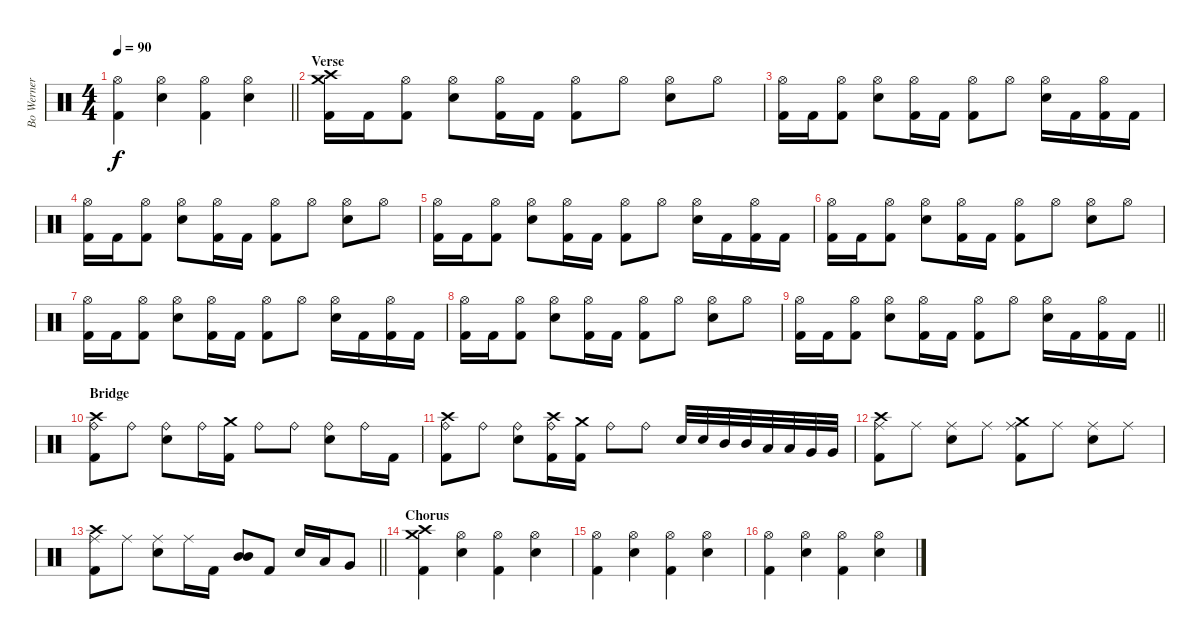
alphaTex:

\track ("Bo Werner" "Bo Werner") {instrument percussion}
\staff {score}
\articulation defaults
\ts (4 4)
\tempo 90
\clef neutral
\barLineRight lightlight
\ks c
("Hi-Hat (open)" "Kick (hit) 2").4{dy f} ("Hi-Hat (open)" "Snare (hit) 2").4 ("Hi-Hat (open)" "Kick (hit) 2").4 ("Hi-Hat (open)" "Snare (hit) 2").4 |
\section ("" "Verse")
("Crash medium (hit)" "Crash high (hit)" "Kick (hit) 2").16 "Kick (hit) 2".16 ("Hi-Hat (open)" "Kick (hit) 2").8 ("Hi-Hat (open)" "Snare (hit) 2").8 ("Hi-Hat (open)" "Kick (hit) 2").16 "Kick (hit) 2".16 ("Hi-Hat (open)" "Kick (hit) 2").8 "Hi-Hat (open)".8 ("Hi-Hat (open)" "Snare (hit) 2").8 "Hi-Hat (open)".8 |
("Hi-Hat (open)" "Kick (hit) 2").16 "Kick (hit) 2".16 ("Hi-Hat (open)" "Kick (hit) 2").8 ("Hi-Hat (open)" "Snare (hit) 2").8 ("Hi-Hat (open)" "Kick (hit) 2").16 "Kick (hit) 2".16 ("Hi-Hat (open)" "Kick (hit) 2").8 "Hi-Hat (open)".8 ("Hi-Hat (open)" "Snare (hit) 2").16 "Kick (hit) 2".16 ("Hi-Hat (open)" "Kick (hit) 2").16 "Kick (hit) 2".16 |
("Hi-Hat (open)" "Kick (hit) 2").16 "Kick (hit) 2".16 ("Hi-Hat (open)" "Kick (hit) 2").8 ("Hi-Hat (open)" "Snare (hit) 2").8 ("Hi-Hat (open)" "Kick (hit) 2").16 "Kick (hit) 2".16 ("Hi-Hat (open)" "Kick (hit) 2").8 "Hi-Hat (open)".8 ("Hi-Hat (open)" "Snare (hit) 2").8 "Hi-Hat (open)".8 |
("Hi-Hat (open)" "Kick (hit) 2").16 "Kick (hit) 2".16 ("Hi-Hat (open)" "Kick (hit) 2").8 ("Hi-Hat (open)" "Snare (hit) 2").8 ("Hi-Hat (open)" "Kick (hit) 2").16 "Kick (hit) 2".16 ("Hi-Hat (open)" "Kick (hit) 2").8 "Hi-Hat (open)".8 ("Hi-Hat (open)" "Snare (hit) 2").16 "Kick (hit) 2".16 ("Hi-Hat (open)" "Kick (hit) 2").16 "Kick (hit) 2".16 |
("Hi-Hat (open)" "Kick (hit) 2").16 "Kick (hit) 2".16 ("Hi-Hat (open)" "Kick (hit) 2").8 ("Hi-Hat (open)" "Snare (hit) 2").8 ("Hi-Hat (open)" "Kick (hit) 2").16 "Kick (hit) 2".16 ("Hi-Hat (open)" "Kick (hit) 2").8 "Hi-Hat (open)".8 ("Hi-Hat (open)" "Snare (hit) 2").8 "Hi-Hat (open)".8 |
("Hi-Hat (open)" "Kick (hit) 2").16 "Kick (hit) 2".16 ("Hi-Hat (open)" "Kick (hit) 2").8 ("Hi-Hat (open)" "Snare (hit) 2").8 ("Hi-Hat (open)" "Kick (hit) 2").16 "Kick (hit) 2".16 ("Hi-Hat (open)" "Kick (hit) 2").8 "Hi-Hat (open)".8 ("Hi-Hat (open)" "Snare (hit) 2").16 "Kick (hit) 2".16 ("Hi-Hat (open)" "Kick (hit) 2").16 "Kick (hit) 2".16 |
("Hi-Hat (open)" "Kick (hit) 2").16 "Kick (hit) 2".16 ("Hi-Hat (open)" "Kick (hit) 2").8 ("Hi-Hat (open)" "Snare (hit) 2").8 ("Hi-Hat (open)" "Kick (hit) 2").16 "Kick (hit) 2".16 ("Hi-Hat (open)" "Kick (hit) 2").8 "Hi-Hat (open)".8 ("Hi-Hat (open)" "Snare (hit) 2").8 "Hi-Hat (open)".8 |
\barLineRight lightlight
("Hi-Hat (open)" "Kick (hit) 2").16 "Kick (hit) 2".16 ("Hi-Hat (open)" "Kick (hit) 2").8 ("Hi-Hat (open)" "Snare (hit) 2").8 ("Hi-Hat (open)" "Kick (hit) 2").16 "Kick (hit) 2".16 ("Hi-Hat (open)" "Kick (hit) 2").8 "Hi-Hat (open)".8 ("Hi-Hat (open)" "Snare (hit) 2").16 "Kick (hit) 2".16 ("Hi-Hat (open)" "Kick (hit) 2").16 "Kick (hit) 2".16 |
\section ("" "Bridge")
("Crash high (hit)" "Ride (bell)" "Kick (hit) 2").8 "Ride (bell)".8 ("Ride (bell)" "Snare (hit) 2").8 "Ride (bell)".16 ("Crash medium (hit)" "Kick (hit) 2").16 "Ride (bell)".8 "Ride (bell)".8 ("Ride (bell)" "Snare (hit) 2").8 "Ride (bell)".16 "Kick (hit) 2".16 |
("Crash high (hit)" "Ride (bell)" "Kick (hit) 2").8 "Ride (bell)".8 ("Ride (bell)" "Snare (hit) 2").8 ("Crash high (hit)" "Ride (bell)" "Kick (hit) 2").16 ("Crash medium (hit)" "Kick (hit) 2").16 "Ride (bell)".8 "Ride (bell)".8 "Snare (hit) 2".32 "Snare (hit) 2".32 "Mid Tom (hit)".32 "Mid Tom (hit)".32 "Low Tom (hit)".32 "Low Tom (hit)".32 "Very Low Tom (hit)".32 "Very Low Tom (hit)".32 |
("Crash high (hit)" "Ride (middle)" "Kick (hit) 2").8 "Ride (middle)".8 ("Ride (middle)" "Snare (hit) 2").8 "Ride (middle)".8 ("Crash medium (hit)" "Ride (middle)" "Kick (hit) 2").8 "Ride (middle)".8 ("Ride (middle)" "Snare (hit) 2").8 "Ride (middle)".8 |
\barLineRight lightlight
("Crash high (hit)" "Ride (middle)" "Kick (hit) 2").8 "Ride (middle)".8 ("Ride (middle)" "Snare (hit) 2").8 "Ride (middle)".16 "Kick (hit) 2".16 ("Mid Tom (hit)" "Mid Tom (hit)").8 "Kick (hit) 2".8 "Snare (hit) 2".16 "Low Tom (hit)".16 "Very Low Tom (hit)".8 |
\section ("" "Chorus")
("Crash medium (hit)" "Crash high (hit)" "Kick (hit) 2").4 ("Hi-Hat (open)" "Snare (hit) 2").4 ("Hi-Hat (open)" "Kick (hit) 2").4 ("Hi-Hat (open)" "Snare (hit) 2").4 |
("Hi-Hat (open)" "Kick (hit) 2").4 ("Hi-Hat (open)" "Snare (hit) 2").4 ("Hi-Hat (open)" "Kick (hit) 2").4 ("Hi-Hat (open)" "Snare (hit) 2").4 |
("Hi-Hat (open)" "Kick (hit) 2").4 ("Hi-Hat (open)" "Snare (hit) 2").4 ("Hi-Hat (open)" "Kick (hit) 2").4 ("Hi-Hat (open)" "Snare (hit) 2").4
